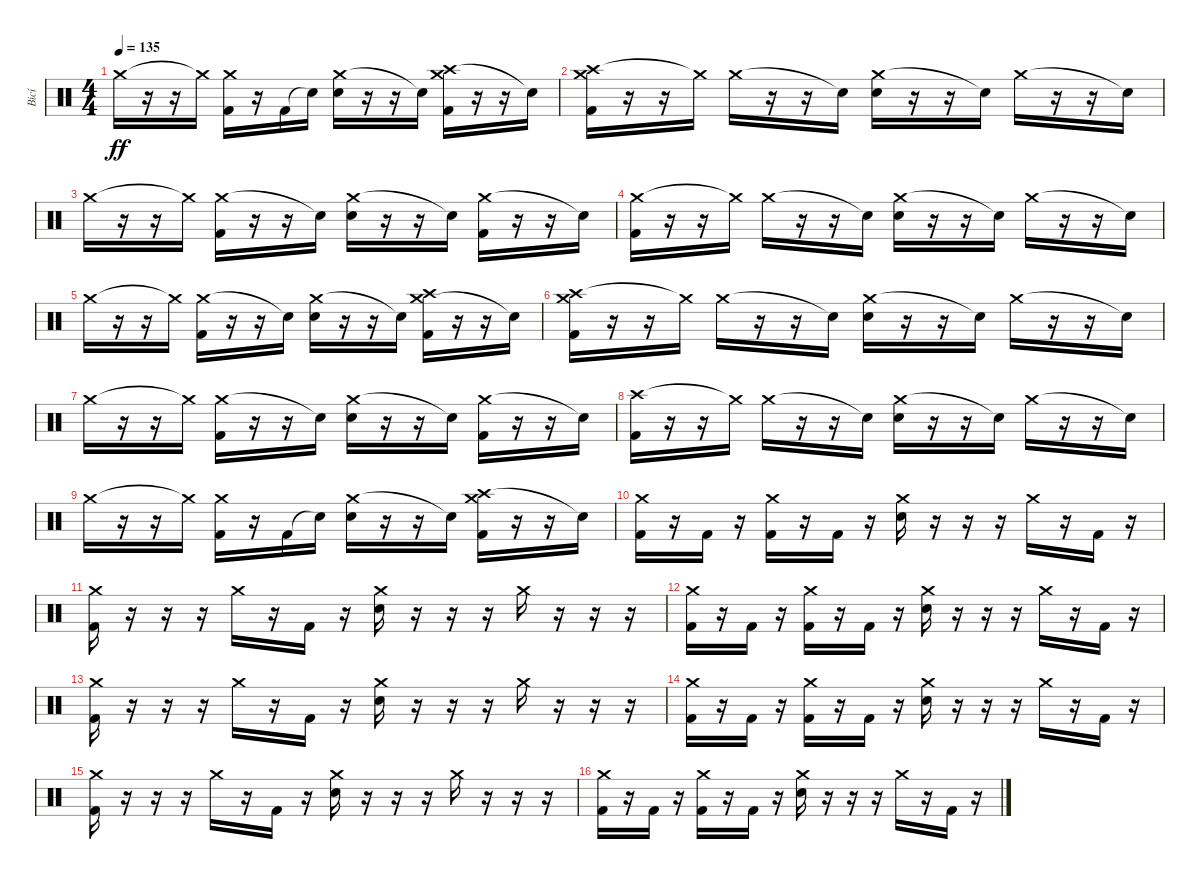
\track ("Bicí" "Bicí") {instrument percussion}
\staff {score}
\articulation defaults
\ts (4 4)
\tempo 135
\clef neutral
\ks c "Crash medium (hit)".16{dy ff}
r.16 r.16 "Crash medium (hit)"{t}.16 ("Crash medium (hit)" "Kick (hit) 2").16 r.16 "Kick (hit) 2".16 "Snare (hit)"{t}.16 ("Crash medium (hit)" "Electric Snare (hit)").16 r.16 r.16 "Snare (hit)"{t}.16 ("Crash high (hit)" "Crash medium (hit)" "Kick (hit) 2").16 r.16 r.16 "Snare (hit)"{t}.16 |
("Crash high (hit)" "Crash medium (hit)" "Kick (hit) 2").16 r.16 r.16 "Crash medium (hit)"{t}.16 "Crash medium (hit)".16 r.16 r.16 "Snare (hit)"{t}.16 ("Crash medium (hit)" "Electric Snare (hit)").16 r.16 r.16 "Snare (hit)"{t}.16 "Crash medium (hit)".16 r.16 r.16 "Snare (hit)"{t}.16 |
"Crash medium (hit)".16 r.16 r.16 "Crash medium (hit)"{t}.16 ("Crash medium (hit)" "Kick (hit) 2").16 r.16 r.16 "Snare (hit)"{t}.16 ("Crash medium (hit)" "Electric Snare (hit)").16 r.16 r.16 "Snare (hit)"{t}.16 ("Crash medium (hit)" "Kick (hit) 2").16 r.16 r.16 "Snare (hit)"{t}.16 |
("Crash medium (hit)" "Kick (hit) 2").16 r.16 r.16 "Crash medium (hit)"{t}.16 "Crash medium (hit)".16 r.16 r.16 "Snare (hit)"{t}.16 ("Crash medium (hit)" "Electric Snare (hit)").16 r.16 r.16 "Snare (hit)"{t}.16 "Crash medium (hit)".16 r.16 r.16 "Snare (hit)"{t}.16 |
"Crash medium (hit)".16 r.16 r.16 "Crash medium (hit)"{t}.16 ("Crash medium (hit)" "Kick (hit) 2").16 r.16 r.16 "Snare (hit)"{t}.16 ("Crash medium (hit)" "Electric Snare (hit)").16 r.16 r.16 "Snare (hit)"{t}.16 ("Crash medium (hit)" "Crash high (hit)" "Kick (hit) 2").16 r.16 r.16 "Snare (hit)"{t}.16 |
("Crash high (hit)" "Crash medium (hit)" "Kick (hit) 2").16 r.16 r.16 "Crash medium (hit)"{t}.16 "Crash medium (hit)".16 r.16 r.16 "Snare (hit)"{t}.16 ("Crash medium (hit)" "Electric Snare (hit)").16 r.16 r.16 "Snare (hit)"{t}.16 "Crash medium (hit)".16 r.16 r.16 "Snare (hit)"{t}.16 |
"Crash medium (hit)".16 r.16 r.16 "Crash medium (hit)"{t}.16 ("Crash medium (hit)" "Kick (hit) 2").16 r.16 r.16 "Snare (hit)"{t}.16 ("Crash medium (hit)" "Electric Snare (hit)").16 r.16 r.16 "Snare (hit)"{t}.16 ("Crash medium (hit)" "Kick (hit) 2").16 r.16 r.16 "Snare (hit)"{t}.16 |
("Crash high (hit)" "Kick (hit) 2").16 r.16 r.16 "Crash medium (hit)"{t}.16 "Crash medium (hit)".16 r.16 r.16 "Snare (hit)"{t}.16 ("Crash medium (hit)" "Electric Snare (hit)").16 r.16 r.16 "Snare (hit)"{t}.16 "Crash medium (hit)".16 r.16 r.16 "Snare (hit)"{t}.16 |
"Crash medium (hit)".16 r.16 r.16 "Crash medium (hit)"{t}.16 ("Crash medium (hit)" "Kick (hit) 2").16 r.16 "Kick (hit) 2".16 "Snare (hit)"{t}.16 ("Crash medium (hit)" "Electric Snare (hit)").16 r.16 r.16 "Snare (hit)"{t}.16 ("Crash high (hit)" "Crash medium (hit)" "Kick (hit) 2").16 r.16 r.16 "Snare (hit)"{t}.16 |
("Crash medium (hit)" "Kick (hit) 2").16 r.16 "Kick (hit) 2".16 r.16 ("Crash medium (hit)" "Kick (hit) 2").16 r.16 "Kick (hit) 2".16 r.16 ("Crash medium (hit)" "Electric Snare (hit)").16 r.16 r.16 r.16 "Crash medium (hit)".16 r.16 "Kick (hit) 2".16 r.16 |
("Crash medium (hit)" "Kick (hit) 2").16 r.16 r.16 r.16 "Crash medium (hit)".16 r.16 "Kick (hit) 2".16 r.16 ("Crash medium (hit)" "Electric Snare (hit)").16 r.16 r.16 r.16 "Crash medium (hit)".16 r.16 r.16 r.16 |
("Crash medium (hit)" "Kick (hit) 2").16 r.16 "Kick (hit) 2".16 r.16 ("Crash medium (hit)" "Kick (hit) 2").16 r.16 "Kick (hit) 2".16 r.16 ("Crash medium (hit)" "Electric Snare (hit)").16 r.16 r.16 r.16 "Crash medium (hit)".16 r.16 "Kick (hit) 2".16 r.16 |
("Crash medium (hit)" "Kick (hit) 2").16 r.16 r.16 r.16 "Crash medium (hit)".16 r.16 "Kick (hit) 2".16 r.16 ("Crash medium (hit)" "Electric Snare (hit)").16 r.16 r.16 r.16 "Crash medium (hit)".16 r.16 r.16 r.16 |
("Crash medium (hit)" "Kick (hit) 2").16 r.16 "Kick (hit) 2".16 r.16 ("Crash medium (hit)" "Kick (hit) 2").16 r.16 "Kick (hit) 2".16 r.16 ("Crash medium (hit)" "Electric Snare (hit)").16 r.16 r.16 r.16 "Crash medium (hit)".16 r.16 "Kick (hit) 2".16 r.16 |
("Crash medium (hit)" "Kick (hit) 2").16 r.16 r.16 r.16 "Crash medium (hit)".16 r.16 "Kick (hit) 2".16 r.16 ("Crash medium (hit)" "Electric Snare (hit)").16 r.16 r.16 r.16 "Crash medium (hit)".16 r.16 r.16 r.16 |
("Crash medium (hit)" "Kick (hit) 2").16 r.16 "Kick (hit) 2".16 r.16 ("Crash medium (hit)" "Kick (hit) 2").16 r.16 "Kick (hit) 2".16 r.16 ("Crash medium (hit)" "Electric Snare (hit)").16 r.16 r.16 r.16 "Crash medium (hit)".16 r.16 "Kick (hit) 2".16 r.16
